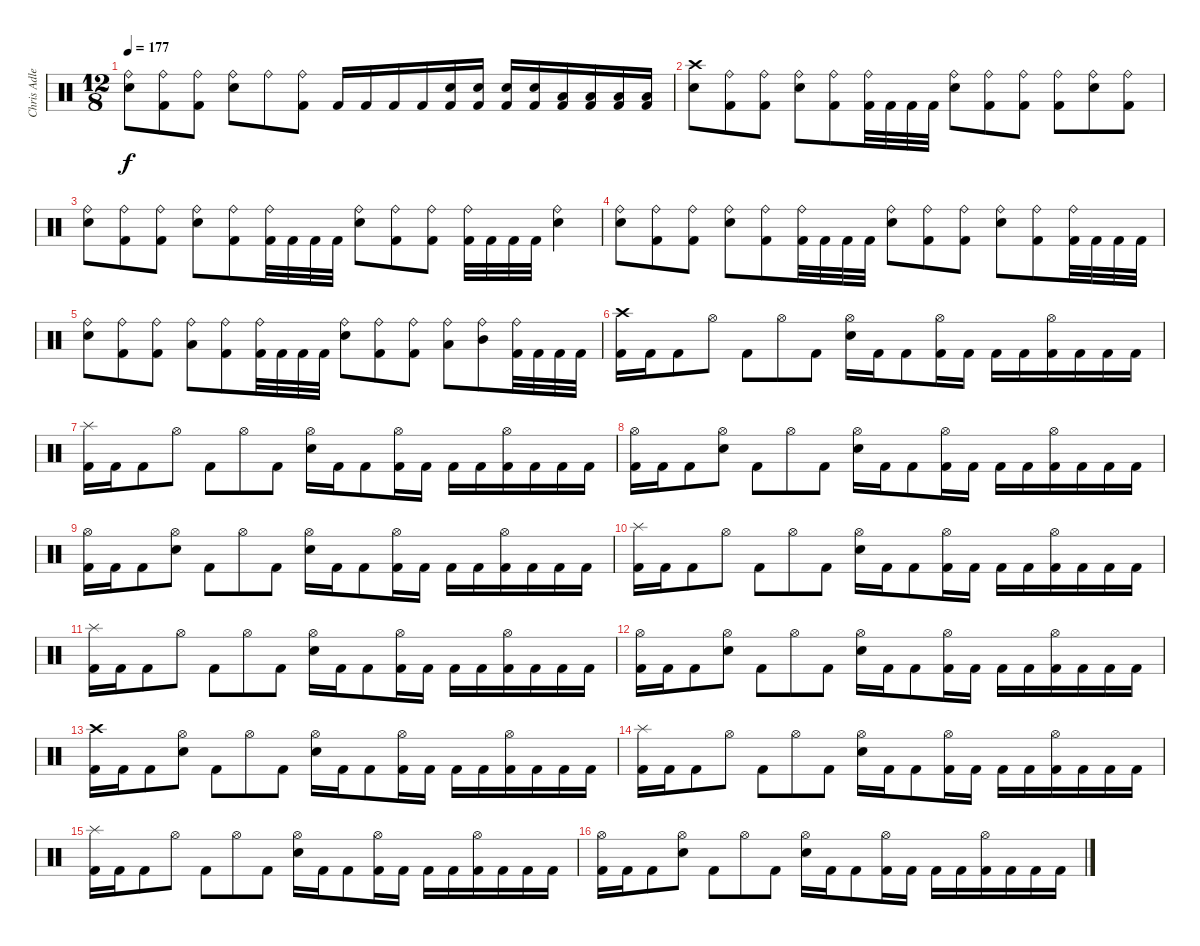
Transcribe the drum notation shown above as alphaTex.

\track ("Chris Adler" "Chris Adle") {instrument percussion}
\staff {score}
\articulation defaults
\ts (12 8)
\tempo 177
\clef neutral
\ks c
("Ride (bell)" "Snare (hit) 2").8{dy f} ("Ride (bell)" "Kick (hit) 2").8 ("Ride (bell)" "Kick (hit) 2").8 ("Ride (bell)" "Snare (hit) 2").8 "Ride (bell)".8 ("Ride (bell)" "Kick (hit) 2").8 "Kick (hit) 2".16 "Kick (hit) 2".16 "Kick (hit) 2".16 "Kick (hit) 2".16 ("Snare (hit) 2" "Kick (hit) 2").16 ("Snare (hit) 2" "Kick (hit) 2").16 ("Snare (hit) 2" "Kick (hit) 2").16 ("Snare (hit) 2" "Kick (hit) 2").16 ("Low Floor Tom (hit)" "Kick (hit) 2").16 ("Low Floor Tom (hit)" "Kick (hit) 2").16 ("Low Floor Tom (hit)" "Kick (hit) 2").16 ("Low Floor Tom (hit)" "Kick (hit) 2").16 |
("Crash high (hit)" "Snare (hit) 2").8 ("Ride (bell)" "Kick (hit) 2").8 ("Ride (bell)" "Kick (hit) 2").8 ("Ride (bell)" "Snare (hit) 2").8 ("Ride (bell)" "Kick (hit) 2").8 ("Ride (bell)" "Kick (hit) 2").32 "Kick (hit) 2".32 "Kick (hit) 2".32 "Kick (hit) 2".32 ("Ride (bell)" "Snare (hit) 2").8 ("Ride (bell)" "Kick (hit) 2").8 ("Ride (bell)" "Kick (hit) 2").8 ("Ride (bell)" "Kick (hit) 2").8 ("Ride (bell)" "Snare (hit) 2").8 ("Ride (bell)" "Kick (hit) 2").8 |
("Ride (bell)" "Snare (hit) 2").8 ("Ride (bell)" "Kick (hit) 2").8 ("Ride (bell)" "Kick (hit) 2").8 ("Ride (bell)" "Snare (hit) 2").8 ("Ride (bell)" "Kick (hit) 2").8 ("Ride (bell)" "Kick (hit) 2").32 "Kick (hit) 2".32 "Kick (hit) 2".32 "Kick (hit) 2".32 ("Ride (bell)" "Snare (hit) 2").8 ("Ride (bell)" "Kick (hit) 2").8 ("Ride (bell)" "Kick (hit) 2").8 ("Ride (bell)" "Kick (hit) 2").32 "Kick (hit) 2".32 "Kick (hit) 2".32 "Kick (hit) 2".32 ("Ride (bell)" "Snare (hit) 2").4 |
("Ride (bell)" "Snare (hit) 2").8 ("Ride (bell)" "Kick (hit) 2").8 ("Ride (bell)" "Kick (hit) 2").8 ("Ride (bell)" "Snare (hit) 2").8 ("Ride (bell)" "Kick (hit) 2").8 ("Ride (bell)" "Kick (hit) 2").32 "Kick (hit) 2".32 "Kick (hit) 2".32 "Kick (hit) 2".32 ("Ride (bell)" "Snare (hit) 2").8 ("Ride (bell)" "Kick (hit) 2").8 ("Ride (bell)" "Kick (hit) 2").8 ("Ride (bell)" "Snare (hit) 2").8 ("Ride (bell)" "Kick (hit) 2").8 ("Ride (bell)" "Kick (hit) 2").32 "Kick (hit) 2".32 "Kick (hit) 2".32 "Kick (hit) 2".32 |
("Ride (bell)" "Snare (hit) 2").8 ("Ride (bell)" "Kick (hit) 2").8 ("Ride (bell)" "Kick (hit) 2").8 ("Ride (bell)" "Low Tom (hit)").8 ("Ride (bell)" "Kick (hit) 2").8 ("Ride (bell)" "Kick (hit) 2").32 "Kick (hit) 2".32 "Kick (hit) 2".32 "Kick (hit) 2".32 ("Ride (bell)" "Snare (hit) 2").8 ("Ride (bell)" "Kick (hit) 2").8 ("Ride (bell)" "Kick (hit) 2").8 ("Ride (bell)" "Low Tom (hit)").8 ("Ride (bell)" "Mid Tom (hit)").8 ("Ride (bell)" "Kick (hit) 2").32 "Kick (hit) 2".32 "Kick (hit) 2".32 "Kick (hit) 2".32 |
("Crash high (hit)" "Kick (hit) 2").16 "Kick (hit) 2".16 "Kick (hit) 2".8 "Hi-Hat (open)".8 "Kick (hit) 2".8 "Hi-Hat (open)".8 "Kick (hit) 2".8 ("Hi-Hat (open)" "Snare (hit) 2").16 "Kick (hit) 2".16 "Kick (hit) 2".8 ("Hi-Hat (open)" "Kick (hit) 2").16 "Kick (hit) 2".16 "Kick (hit) 2".16 "Kick (hit) 2".16 ("Hi-Hat (open)" "Kick (hit) 2").16 "Kick (hit) 2".16 "Kick (hit) 2".16 "Kick (hit) 2".16 |
("Splash (hit)" "Kick (hit) 2").16 "Kick (hit) 2".16 "Kick (hit) 2".8 "Hi-Hat (open)".8 "Kick (hit) 2".8 "Hi-Hat (open)".8 "Kick (hit) 2".8 ("Hi-Hat (open)" "Snare (hit) 2").16 "Kick (hit) 2".16 "Kick (hit) 2".8 ("Hi-Hat (open)" "Kick (hit) 2").16 "Kick (hit) 2".16 "Kick (hit) 2".16 "Kick (hit) 2".16 ("Hi-Hat (open)" "Kick (hit) 2").16 "Kick (hit) 2".16 "Kick (hit) 2".16 "Kick (hit) 2".16 |
("Hi-Hat (open)" "Kick (hit) 2").16 "Kick (hit) 2".16 "Kick (hit) 2".8 ("Hi-Hat (open)" "Snare (hit) 2").8 "Kick (hit) 2".8 "Hi-Hat (open)".8 "Kick (hit) 2".8 ("Hi-Hat (open)" "Snare (hit) 2").16 "Kick (hit) 2".16 "Kick (hit) 2".8 ("Hi-Hat (open)" "Kick (hit) 2").16 "Kick (hit) 2".16 "Kick (hit) 2".16 "Kick (hit) 2".16 ("Hi-Hat (open)" "Kick (hit) 2").16 "Kick (hit) 2".16 "Kick (hit) 2".16 "Kick (hit) 2".16 |
("Hi-Hat (open)" "Kick (hit) 2").16 "Kick (hit) 2".16 "Kick (hit) 2".8 ("Hi-Hat (open)" "Snare (hit) 2").8 "Kick (hit) 2".8 "Hi-Hat (open)".8 "Kick (hit) 2".8 ("Hi-Hat (open)" "Snare (hit) 2").16 "Kick (hit) 2".16 "Kick (hit) 2".8 ("Hi-Hat (open)" "Kick (hit) 2").16 "Kick (hit) 2".16 "Kick (hit) 2".16 "Kick (hit) 2".16 ("Hi-Hat (open)" "Kick (hit) 2").16 "Kick (hit) 2".16 "Kick (hit) 2".16 "Kick (hit) 2".16 |
("Splash (hit)" "Kick (hit) 2").16 "Kick (hit) 2".16 "Kick (hit) 2".8 "Hi-Hat (open)".8 "Kick (hit) 2".8 "Hi-Hat (open)".8 "Kick (hit) 2".8 ("Hi-Hat (open)" "Snare (hit) 2").16 "Kick (hit) 2".16 "Kick (hit) 2".8 ("Hi-Hat (open)" "Kick (hit) 2").16 "Kick (hit) 2".16 "Kick (hit) 2".16 "Kick (hit) 2".16 ("Hi-Hat (open)" "Kick (hit) 2").16 "Kick (hit) 2".16 "Kick (hit) 2".16 "Kick (hit) 2".16 |
("Splash (hit)" "Kick (hit) 2").16 "Kick (hit) 2".16 "Kick (hit) 2".8 "Hi-Hat (open)".8 "Kick (hit) 2".8 "Hi-Hat (open)".8 "Kick (hit) 2".8 ("Hi-Hat (open)" "Snare (hit) 2").16 "Kick (hit) 2".16 "Kick (hit) 2".8 ("Hi-Hat (open)" "Kick (hit) 2").16 "Kick (hit) 2".16 "Kick (hit) 2".16 "Kick (hit) 2".16 ("Hi-Hat (open)" "Kick (hit) 2").16 "Kick (hit) 2".16 "Kick (hit) 2".16 "Kick (hit) 2".16 |
("Hi-Hat (open)" "Kick (hit) 2").16 "Kick (hit) 2".16 "Kick (hit) 2".8 ("Hi-Hat (open)" "Snare (hit) 2").8 "Kick (hit) 2".8 "Hi-Hat (open)".8 "Kick (hit) 2".8 ("Hi-Hat (open)" "Snare (hit) 2").16 "Kick (hit) 2".16 "Kick (hit) 2".8 ("Hi-Hat (open)" "Kick (hit) 2").16 "Kick (hit) 2".16 "Kick (hit) 2".16 "Kick (hit) 2".16 ("Hi-Hat (open)" "Kick (hit) 2").16 "Kick (hit) 2".16 "Kick (hit) 2".16 "Kick (hit) 2".16 |
("Crash high (hit)" "Kick (hit) 2").16 "Kick (hit) 2".16 "Kick (hit) 2".8 ("Hi-Hat (open)" "Snare (hit) 2").8 "Kick (hit) 2".8 "Hi-Hat (open)".8 "Kick (hit) 2".8 ("Hi-Hat (open)" "Snare (hit) 2").16 "Kick (hit) 2".16 "Kick (hit) 2".8 ("Hi-Hat (open)" "Kick (hit) 2").16 "Kick (hit) 2".16 "Kick (hit) 2".16 "Kick (hit) 2".16 ("Hi-Hat (open)" "Kick (hit) 2").16 "Kick (hit) 2".16 "Kick (hit) 2".16 "Kick (hit) 2".16 |
("Splash (hit)" "Kick (hit) 2").16 "Kick (hit) 2".16 "Kick (hit) 2".8 "Hi-Hat (open)".8 "Kick (hit) 2".8 "Hi-Hat (open)".8 "Kick (hit) 2".8 ("Hi-Hat (open)" "Snare (hit) 2").16 "Kick (hit) 2".16 "Kick (hit) 2".8 ("Hi-Hat (open)" "Kick (hit) 2").16 "Kick (hit) 2".16 "Kick (hit) 2".16 "Kick (hit) 2".16 ("Hi-Hat (open)" "Kick (hit) 2").16 "Kick (hit) 2".16 "Kick (hit) 2".16 "Kick (hit) 2".16 |
("Splash (hit)" "Kick (hit) 2").16 "Kick (hit) 2".16 "Kick (hit) 2".8 "Hi-Hat (open)".8 "Kick (hit) 2".8 "Hi-Hat (open)".8 "Kick (hit) 2".8 ("Hi-Hat (open)" "Snare (hit) 2").16 "Kick (hit) 2".16 "Kick (hit) 2".8 ("Hi-Hat (open)" "Kick (hit) 2").16 "Kick (hit) 2".16 "Kick (hit) 2".16 "Kick (hit) 2".16 ("Hi-Hat (open)" "Kick (hit) 2").16 "Kick (hit) 2".16 "Kick (hit) 2".16 "Kick (hit) 2".16 |
("Hi-Hat (open)" "Kick (hit) 2").16 "Kick (hit) 2".16 "Kick (hit) 2".8 ("Hi-Hat (open)" "Snare (hit) 2").8 "Kick (hit) 2".8 "Hi-Hat (open)".8 "Kick (hit) 2".8 ("Hi-Hat (open)" "Snare (hit) 2").16 "Kick (hit) 2".16 "Kick (hit) 2".8 ("Hi-Hat (open)" "Kick (hit) 2").16 "Kick (hit) 2".16 "Kick (hit) 2".16 "Kick (hit) 2".16 ("Hi-Hat (open)" "Kick (hit) 2").16 "Kick (hit) 2".16 "Kick (hit) 2".16 "Kick (hit) 2".16
